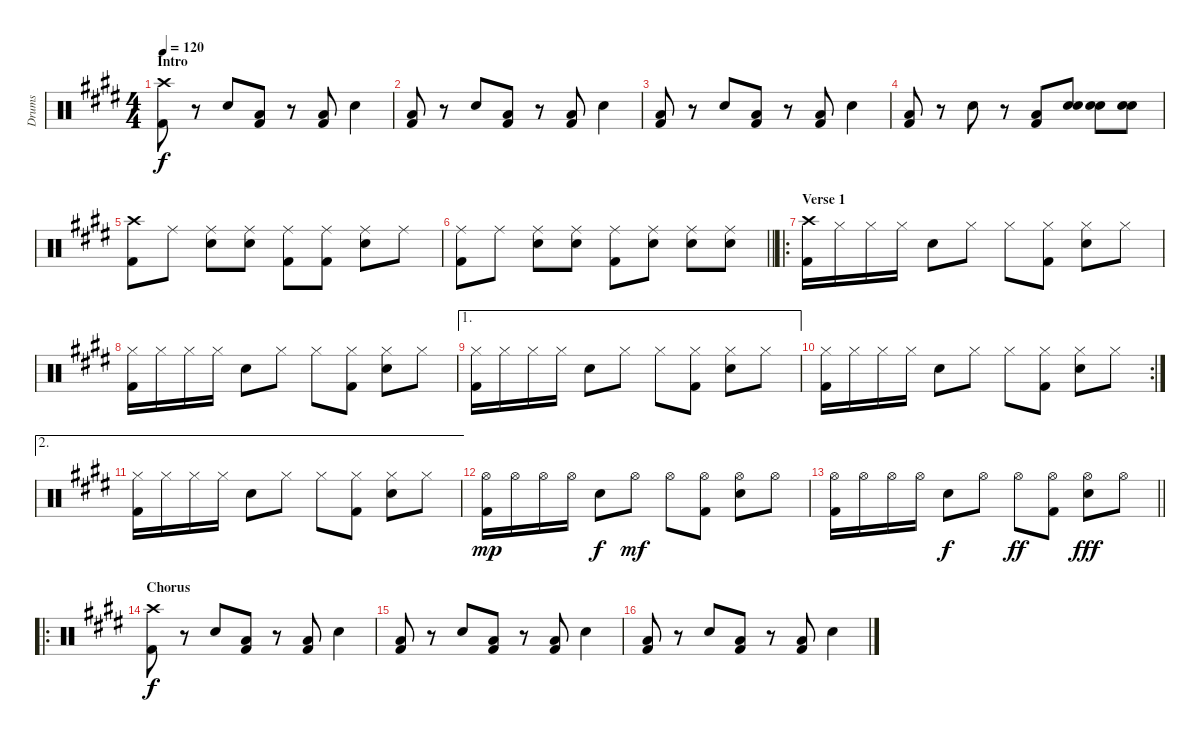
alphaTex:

\track ("Drums" "Drums") {instrument percussion}
\staff {score}
\articulation defaults
\ts (4 4)
\section ("" "Intro")
\tempo 120
\clef neutral
\ks e
("Crash high (hit)" "Kick (hit) 2").8{dy f} r.8 "Electric Snare (hit)".8 ("Low Tom (hit)" "Kick (hit) 2").8 r.8 ("Low Tom (hit)" "Kick (hit) 2").8 "Electric Snare (hit)".4 |
("Low Tom (hit)" "Kick (hit) 2").8 r.8 "Electric Snare (hit)".8 ("Low Tom (hit)" "Kick (hit) 2").8 r.8 ("Low Tom (hit)" "Kick (hit) 2").8 "Electric Snare (hit)".4 |
("Low Tom (hit)" "Kick (hit) 2").8 r.8 "Electric Snare (hit)".8 ("Low Tom (hit)" "Kick (hit) 2").8 r.8 ("Low Tom (hit)" "Kick (hit) 2").8 "Electric Snare (hit)".4 |
("Low Tom (hit)" "Kick (hit) 2").8 r.8 "Electric Snare (hit)".8 r.8 ("Low Tom (hit)" "Kick (hit) 2").8 ("Electric Snare (hit)" "Electric Snare (hit)").8 ("Electric Snare (hit)" "Electric Snare (hit)").8 ("Electric Snare (hit)" "Electric Snare (hit)").8 |
("Crash high (hit)" "Kick (hit) 2").8 "Ride (middle)".8 ("Ride (middle)" "Electric Snare (hit)").8 ("Ride (middle)" "Electric Snare (hit)").8 ("Ride (middle)" "Kick (hit) 2").8 ("Ride (middle)" "Kick (hit) 2").8 ("Ride (middle)" "Electric Snare (hit)").8 "Ride (middle)".8 |
\barLineRight lightlight
("Ride (middle)" "Kick (hit) 2").8 "Ride (middle)".8 ("Ride (middle)" "Electric Snare (hit)").8 ("Ride (middle)" "Electric Snare (hit)").8 ("Ride (middle)" "Kick (hit) 2").8 ("Ride (middle)" "Electric Snare (hit)").8 ("Ride (middle)" "Electric Snare (hit)").8 ("Ride (middle)" "Electric Snare (hit)").8 |
\ro
\section ("" "Verse 1")
("Crash high (hit)" "Kick (hit) 2").16 "Hi-Hat (closed)".16 "Hi-Hat (closed)".16 "Hi-Hat (closed)".16 "Electric Snare (hit)".8 "Hi-Hat (closed)".8 "Hi-Hat (closed)".8 ("Hi-Hat (closed)" "Kick (hit) 2").8 ("Hi-Hat (closed)" "Electric Snare (hit)").8 "Hi-Hat (closed)".8 |
("Hi-Hat (closed)" "Kick (hit) 2").16 "Hi-Hat (closed)".16 "Hi-Hat (closed)".16 "Hi-Hat (closed)".16 "Electric Snare (hit)".8 "Hi-Hat (closed)".8 "Hi-Hat (closed)".8 ("Hi-Hat (closed)" "Kick (hit) 2").8 ("Hi-Hat (closed)" "Electric Snare (hit)").8 "Hi-Hat (closed)".8 |
\ae 1
("Hi-Hat (closed)" "Kick (hit) 2").16 "Hi-Hat (closed)".16 "Hi-Hat (closed)".16 "Hi-Hat (closed)".16 "Electric Snare (hit)".8 "Hi-Hat (closed)".8 "Hi-Hat (closed)".8 ("Hi-Hat (closed)" "Kick (hit) 2").8 ("Hi-Hat (closed)" "Electric Snare (hit)").8 "Hi-Hat (closed)".8 |
\rc 2
("Hi-Hat (closed)" "Kick (hit) 2").16 "Hi-Hat (closed)".16 "Hi-Hat (closed)".16 "Hi-Hat (closed)".16 "Electric Snare (hit)".8 "Hi-Hat (closed)".8 "Hi-Hat (closed)".8 ("Hi-Hat (closed)" "Kick (hit) 2").8 ("Hi-Hat (closed)" "Electric Snare (hit)").8 "Hi-Hat (closed)".8 |
\ae 2
("Hi-Hat (closed)" "Kick (hit) 2").16 "Hi-Hat (closed)".16 "Hi-Hat (closed)".16 "Hi-Hat (closed)".16 "Electric Snare (hit)".8 "Hi-Hat (closed)".8 "Hi-Hat (closed)".8 ("Hi-Hat (closed)" "Kick (hit) 2").8 ("Hi-Hat (closed)" "Electric Snare (hit)").8 "Hi-Hat (closed)".8 |
("Hi-Hat (open)" "Kick (hit) 2").16{dy mp} "Hi-Hat (open)".16 "Hi-Hat (open)".16 "Hi-Hat (open)".16 "Electric Snare (hit)".8{dy f} "Hi-Hat (open)".8{dy mf} "Hi-Hat (open)".8 ("Hi-Hat (open)" "Kick (hit) 2").8 ("Hi-Hat (open)" "Electric Snare (hit)").8 "Hi-Hat (open)".8 |
\barLineRight lightlight
("Hi-Hat (open)" "Kick (hit) 2").16 "Hi-Hat (open)".16 "Hi-Hat (open)".16 "Hi-Hat (open)".16 "Electric Snare (hit)".8{dy f} "Hi-Hat (open)".8 "Hi-Hat (open)".8{dy ff} ("Hi-Hat (open)" "Kick (hit) 2").8 ("Hi-Hat (open)" "Electric Snare (hit)").8{dy fff} "Hi-Hat (open)".8 |
\ro
\section ("" "Chorus")
("Crash high (hit)" "Kick (hit) 2").8{dy f} r.8 "Electric Snare (hit)".8 ("Low Tom (hit)" "Kick (hit) 2").8 r.8 ("Low Tom (hit)" "Kick (hit) 2").8 "Electric Snare (hit)".4 |
("Low Tom (hit)" "Kick (hit) 2").8 r.8 "Electric Snare (hit)".8 ("Low Tom (hit)" "Kick (hit) 2").8 r.8 ("Low Tom (hit)" "Kick (hit) 2").8 "Electric Snare (hit)".4 |
("Low Tom (hit)" "Kick (hit) 2").8 r.8 "Electric Snare (hit)".8 ("Low Tom (hit)" "Kick (hit) 2").8 r.8 ("Low Tom (hit)" "Kick (hit) 2").8 "Electric Snare (hit)".4
